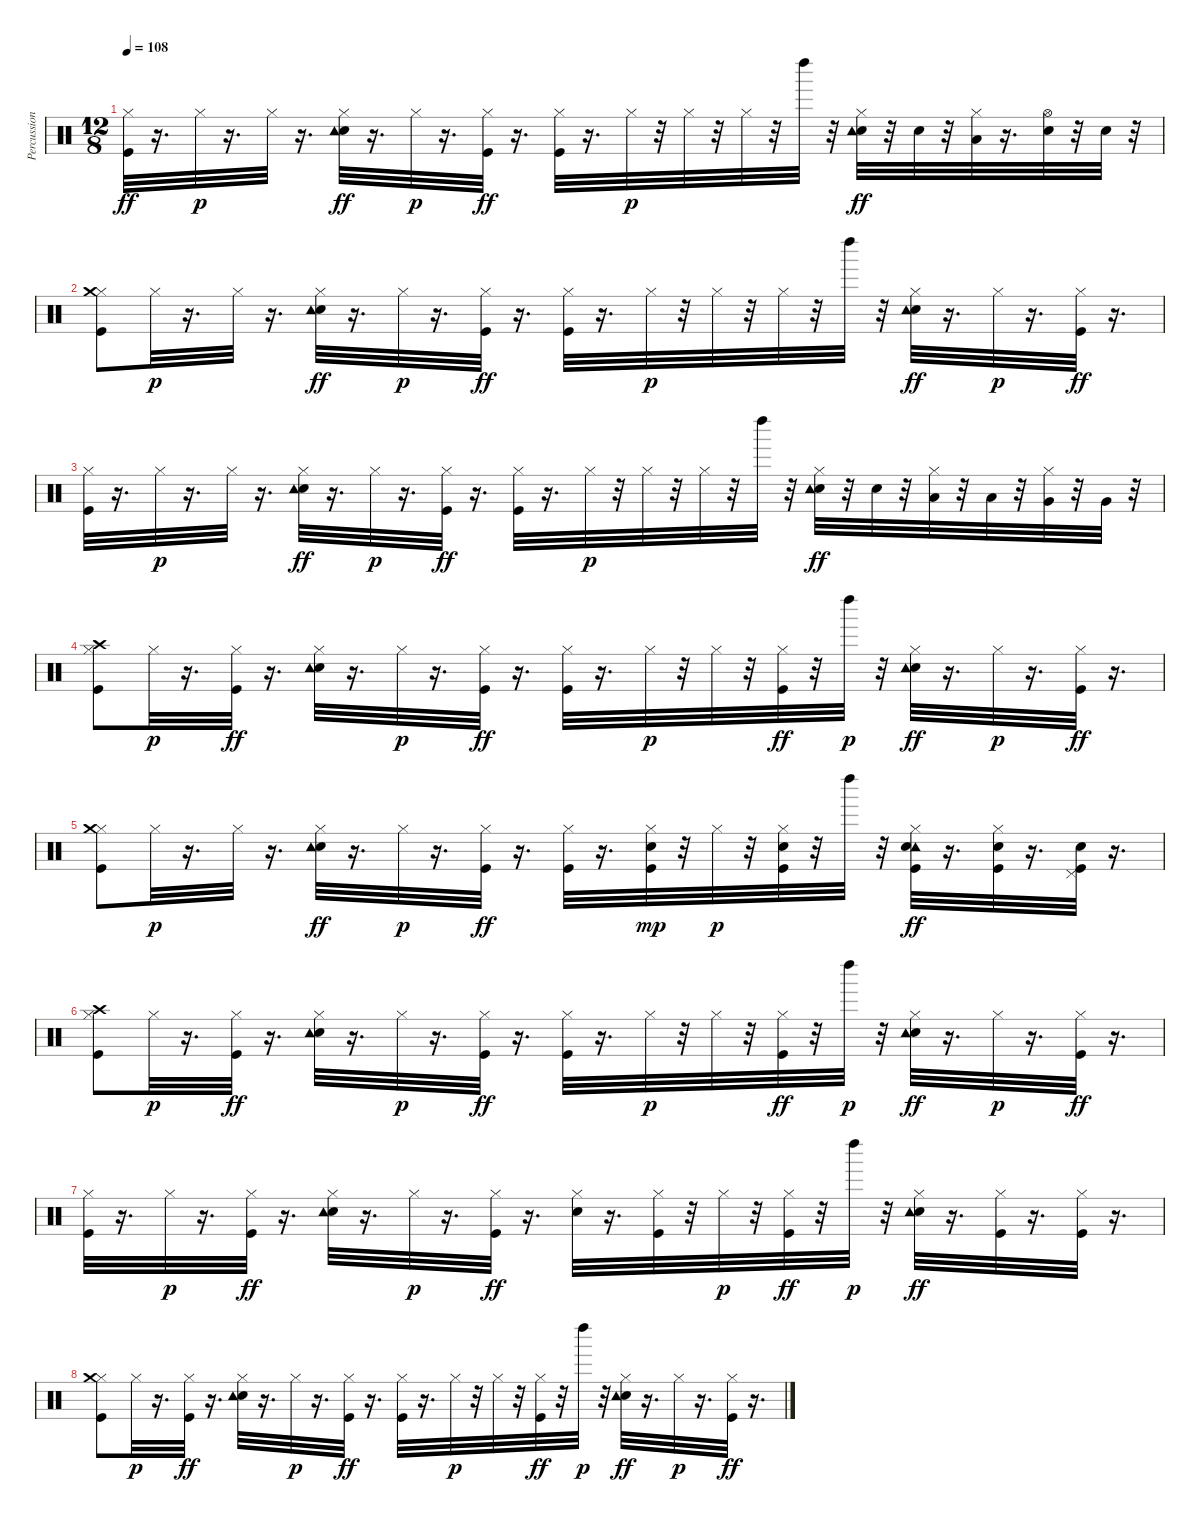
\track ("Percussion" "Percussion") {instrument percussion}
\staff {score}
\articulation defaults
\ts (12 8)
\tempo 108
\clef neutral
\ks c
("Hi-Hat (closed)" "Kick (hit)").32{dy ff} r.16{d} "Hi-Hat (closed)".32{dy p} r.16{d} "Hi-Hat (closed)".32 r.16{d} ("Hi-Hat (closed)" "Snare (hit) 2" "Tambourine (hit)").32{dy ff} r.16{d} "Hi-Hat (closed)".32{dy p} r.16{d} ("Hi-Hat (closed)" "Kick (hit)").32{dy ff} r.16{d} ("Hi-Hat (closed)" "Kick (hit)").32 r.16{d} "Hi-Hat (closed)".32{dy p} r.32 "Hi-Hat (closed)".32 r.32 "Hi-Hat (closed)".32 r.32 "Left Maraca (hit)".32 r.32 ("Hi-Hat (closed)" "Snare (hit) 2" "Tambourine (hit)").32{dy ff} r.32 "Snare (hit) 2".32 r.32 ("Hi-Hat (closed)" "Low Tom (hit)").32 r.16{d} ("Hi-Hat (open)" "Snare (hit) 2").32 r.32 "Snare (hit) 2".32 r.32 |
("Hi-Hat (closed)" "Kick (hit)" "Crash medium (hit)").8 "Hi-Hat (closed)".32{dy p} r.16{d} "Hi-Hat (closed)".32 r.16{d} ("Hi-Hat (closed)" "Snare (hit) 2" "Tambourine (hit)").32{dy ff} r.16{d} "Hi-Hat (closed)".32{dy p} r.16{d} ("Hi-Hat (closed)" "Kick (hit)").32{dy ff} r.16{d} ("Hi-Hat (closed)" "Kick (hit)").32 r.16{d} "Hi-Hat (closed)".32{dy p} r.32 "Hi-Hat (closed)".32 r.32 "Hi-Hat (closed)".32 r.32 "Left Maraca (hit)".32 r.32 ("Hi-Hat (closed)" "Snare (hit) 2" "Tambourine (hit)").32{dy ff} r.16{d} "Hi-Hat (closed)".32{dy p} r.16{d} ("Hi-Hat (closed)" "Kick (hit)").32{dy ff} r.16{d} |
("Hi-Hat (closed)" "Kick (hit)").32 r.16{d} "Hi-Hat (closed)".32{dy p} r.16{d} "Hi-Hat (closed)".32 r.16{d} ("Hi-Hat (closed)" "Snare (hit) 2" "Tambourine (hit)").32{dy ff} r.16{d} "Hi-Hat (closed)".32{dy p} r.16{d} ("Hi-Hat (closed)" "Kick (hit)").32{dy ff} r.16{d} ("Hi-Hat (closed)" "Kick (hit)").32 r.16{d} "Hi-Hat (closed)".32{dy p} r.32 "Hi-Hat (closed)".32 r.32 "Hi-Hat (closed)".32 r.32 "Left Maraca (hit)".32 r.32 ("Hi-Hat (closed)" "Snare (hit) 2" "Tambourine (hit)").32{dy ff} r.32 "Snare (hit) 2".32 r.32 ("Hi-Hat (closed)" "Low Tom (hit)").32 r.32 "Low Tom (hit)".32 r.32 ("Hi-Hat (closed)" "Very Low Tom (hit)").32 r.32 "Very Low Tom (hit)".32 r.32 |
("Hi-Hat (closed)" "Kick (hit)" "Crash high (hit)").8 "Hi-Hat (closed)".32{dy p} r.16{d} ("Hi-Hat (closed)" "Kick (hit)").32{dy ff} r.16{d} ("Hi-Hat (closed)" "Snare (hit) 2" "Tambourine (hit)").32 r.16{d} "Hi-Hat (closed)".32{dy p} r.16{d} ("Hi-Hat (closed)" "Kick (hit)").32{dy ff} r.16{d} ("Hi-Hat (closed)" "Kick (hit)").32 r.16{d} "Hi-Hat (closed)".32{dy p} r.32 "Hi-Hat (closed)".32 r.32 ("Hi-Hat (closed)" "Kick (hit)").32{dy ff} r.32 "Left Maraca (hit)".32{dy p} r.32 ("Hi-Hat (closed)" "Snare (hit) 2" "Tambourine (hit)").32{dy ff} r.16{d} "Hi-Hat (closed)".32{dy p} r.16{d} ("Hi-Hat (closed)" "Kick (hit)").32{dy ff} r.16{d} |
("Hi-Hat (closed)" "Kick (hit)" "Crash medium (hit)").8 "Hi-Hat (closed)".32{dy p} r.16{d} "Hi-Hat (closed)".32 r.16{d} ("Hi-Hat (closed)" "Snare (hit) 2" "Tambourine (hit)").32{dy ff} r.16{d} "Hi-Hat (closed)".32{dy p} r.16{d} ("Hi-Hat (closed)" "Kick (hit)").32{dy ff} r.16{d} ("Hi-Hat (closed)" "Kick (hit)").32 r.16{d} ("Hi-Hat (closed)" "Snare (hit) 2" "Kick (hit)").32{dy mp} r.32 "Hi-Hat (closed)".32{dy p} r.32 ("Hi-Hat (closed)" "Snare (hit) 2" "Kick (hit)").32 r.32 "Left Maraca (hit)".32 r.32 ("Hi-Hat (closed)" "Tambourine (hit)" "Snare (hit) 2" "Kick (hit)").32{dy ff} r.16{d} ("Hi-Hat (closed)" "Snare (hit) 2" "Kick (hit)").32 r.16{d} ("Pedal Hi-Hat (hit)" "Snare (hit) 2" "Kick (hit)").32 r.16{d} |
("Hi-Hat (closed)" "Kick (hit)" "Crash high (hit)").8 "Hi-Hat (closed)".32{dy p} r.16{d} ("Hi-Hat (closed)" "Kick (hit)").32{dy ff} r.16{d} ("Hi-Hat (closed)" "Snare (hit) 2" "Tambourine (hit)").32 r.16{d} "Hi-Hat (closed)".32{dy p} r.16{d} ("Hi-Hat (closed)" "Kick (hit)").32{dy ff} r.16{d} ("Hi-Hat (closed)" "Kick (hit)").32 r.16{d} "Hi-Hat (closed)".32{dy p} r.32 "Hi-Hat (closed)".32 r.32 ("Hi-Hat (closed)" "Kick (hit)").32{dy ff} r.32 "Left Maraca (hit)".32{dy p} r.32 ("Hi-Hat (closed)" "Snare (hit) 2" "Tambourine (hit)").32{dy ff} r.16{d} "Hi-Hat (closed)".32{dy p} r.16{d} ("Hi-Hat (closed)" "Kick (hit)").32{dy ff} r.16{d} |
("Hi-Hat (closed)" "Kick (hit)").32 r.16{d} "Hi-Hat (closed)".32{dy p} r.16{d} ("Hi-Hat (closed)" "Kick (hit)").32{dy ff} r.16{d} ("Hi-Hat (closed)" "Snare (hit) 2" "Tambourine (hit)").32 r.16{d} "Hi-Hat (closed)".32{dy p} r.16{d} ("Hi-Hat (closed)" "Kick (hit)").32{dy ff} r.16{d} ("Hi-Hat (closed)" "Snare (hit) 2").32 r.16{d} ("Hi-Hat (closed)" "Kick (hit)").32 r.32 "Hi-Hat (closed)".32{dy p} r.32 ("Hi-Hat (closed)" "Kick (hit)").32{dy ff} r.32 "Left Maraca (hit)".32{dy p} r.32 ("Hi-Hat (closed)" "Snare (hit) 2" "Tambourine (hit)").32{dy ff} r.16{d} ("Hi-Hat (closed)" "Kick (hit)").32 r.16{d} ("Hi-Hat (closed)" "Kick (hit)").32 r.16{d} |
("Hi-Hat (closed)" "Kick (hit)" "Crash medium (hit)").8 "Hi-Hat (closed)".32{dy p} r.16{d} ("Hi-Hat (closed)" "Kick (hit)").32{dy ff} r.16{d} ("Hi-Hat (closed)" "Snare (hit) 2" "Tambourine (hit)").32 r.16{d} "Hi-Hat (closed)".32{dy p} r.16{d} ("Hi-Hat (closed)" "Kick (hit)").32{dy ff} r.16{d} ("Hi-Hat (closed)" "Kick (hit)").32 r.16{d} "Hi-Hat (closed)".32{dy p} r.32 "Hi-Hat (closed)".32 r.32 ("Hi-Hat (closed)" "Kick (hit)").32{dy ff} r.32 "Left Maraca (hit)".32{dy p} r.32 ("Hi-Hat (closed)" "Snare (hit) 2" "Tambourine (hit)").32{dy ff} r.16{d} "Hi-Hat (closed)".32{dy p} r.16{d} ("Hi-Hat (closed)" "Kick (hit)").32{dy ff} r.16{d}
